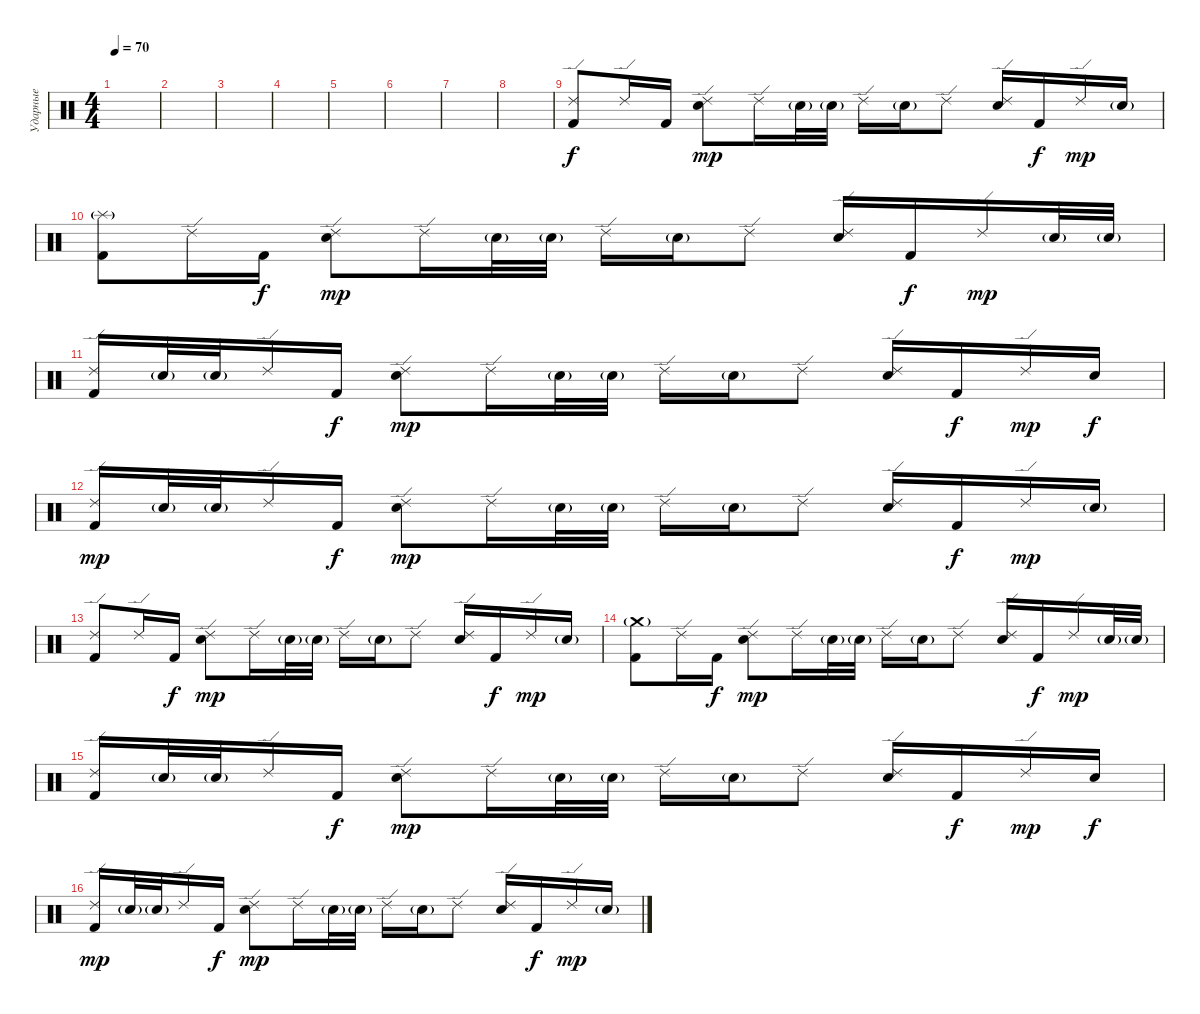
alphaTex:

\track ("Ударные" "Ударные") {instrument percussion}
\staff {score}
\articulation defaults
\ts (4 4)
\tempo 70
\clef neutral
\ks c
|
|
|
|
|
|
|
|
("Ride (edge) 2" "Kick (hit) 2").8 "Ride (edge) 2".16 "Kick (hit) 2".16{dy f} ("Ride (edge) 2" "Snare (hit) 2").8{dy mp} "Ride (edge) 2".16 "Snare (hit) 2"{g}.32 "Snare (hit) 2"{g}.32 "Ride (edge) 2".16 "Snare (hit) 2"{g}.16 "Ride (edge) 2".8 ("Ride (edge) 2" "Snare (hit) 2").16 "Kick (hit) 2".16{dy f} "Ride (edge) 2".16{dy mp} "Snare (hit) 2"{g}.16 |
("Splash (hit)"{g} "Kick (hit) 2").8 "Ride (edge) 2".16 "Kick (hit) 2".16{dy f} ("Ride (edge) 2" "Snare (hit) 2").8{dy mp} "Ride (edge) 2".16 "Snare (hit) 2"{g}.32 "Snare (hit) 2"{g}.32 "Ride (edge) 2".16 "Snare (hit) 2"{g}.16 "Ride (edge) 2".8 ("Ride (edge) 2" "Snare (hit) 2").16 "Kick (hit) 2".16{dy f} "Ride (edge) 2".16{dy mp} "Snare (hit) 2"{g}.32 "Snare (hit) 2"{g}.32 |
("Ride (edge) 2" "Kick (hit) 2").16 "Snare (hit) 2"{g}.32 "Snare (hit) 2"{g}.32 "Ride (edge) 2".16 "Kick (hit) 2".16{dy f} ("Ride (edge) 2" "Snare (hit) 2").8{dy mp} "Ride (edge) 2".16 "Snare (hit) 2"{g}.32 "Snare (hit) 2"{g}.32 "Ride (edge) 2".16 "Snare (hit) 2"{g}.16 "Ride (edge) 2".8 ("Ride (edge) 2" "Snare (hit) 2").16 "Kick (hit) 2".16{dy f} "Ride (edge) 2".16{dy mp} "Snare (hit) 2".16{dy f} |
("Ride (edge) 2" "Kick (hit) 2").16{dy mp} "Snare (hit) 2"{g}.32 "Snare (hit) 2"{g}.32 "Ride (edge) 2".16 "Kick (hit) 2".16{dy f} ("Ride (edge) 2" "Snare (hit) 2").8{dy mp} "Ride (edge) 2".16 "Snare (hit) 2"{g}.32 "Snare (hit) 2"{g}.32 "Ride (edge) 2".16 "Snare (hit) 2"{g}.16 "Ride (edge) 2".8 ("Ride (edge) 2" "Snare (hit) 2").16 "Kick (hit) 2".16{dy f} "Ride (edge) 2".16{dy mp} "Snare (hit) 2"{g}.16 |
("Ride (edge) 2" "Kick (hit) 2").8 "Ride (edge) 2".16 "Kick (hit) 2".16{dy f} ("Ride (edge) 2" "Snare (hit) 2").8{dy mp} "Ride (edge) 2".16 "Snare (hit) 2"{g}.32 "Snare (hit) 2"{g}.32 "Ride (edge) 2".16 "Snare (hit) 2"{g}.16 "Ride (edge) 2".8 ("Ride (edge) 2" "Snare (hit) 2").16 "Kick (hit) 2".16{dy f} "Ride (edge) 2".16{dy mp} "Snare (hit) 2"{g}.16 |
("Crash medium (hit)"{g} "Kick (hit) 2").8 "Ride (edge) 2".16 "Kick (hit) 2".16{dy f} ("Ride (edge) 2" "Snare (hit) 2").8{dy mp} "Ride (edge) 2".16 "Snare (hit) 2"{g}.32 "Snare (hit) 2"{g}.32 "Ride (edge) 2".16 "Snare (hit) 2"{g}.16 "Ride (edge) 2".8 ("Ride (edge) 2" "Snare (hit) 2").16 "Kick (hit) 2".16{dy f} "Ride (edge) 2".16{dy mp} "Snare (hit) 2"{g}.32 "Snare (hit) 2"{g}.32 |
("Ride (edge) 2" "Kick (hit) 2").16 "Snare (hit) 2"{g}.32 "Snare (hit) 2"{g}.32 "Ride (edge) 2".16 "Kick (hit) 2".16{dy f} ("Ride (edge) 2" "Snare (hit) 2").8{dy mp} "Ride (edge) 2".16 "Snare (hit) 2"{g}.32 "Snare (hit) 2"{g}.32 "Ride (edge) 2".16 "Snare (hit) 2"{g}.16 "Ride (edge) 2".8 ("Ride (edge) 2" "Snare (hit) 2").16 "Kick (hit) 2".16{dy f} "Ride (edge) 2".16{dy mp} "Snare (hit) 2".16{dy f} |
("Ride (edge) 2" "Kick (hit) 2").16{dy mp} "Snare (hit) 2"{g}.32 "Snare (hit) 2"{g}.32 "Ride (edge) 2".16 "Kick (hit) 2".16{dy f} ("Ride (edge) 2" "Snare (hit) 2").8{dy mp} "Ride (edge) 2".16 "Snare (hit) 2"{g}.32 "Snare (hit) 2"{g}.32 "Ride (edge) 2".16 "Snare (hit) 2"{g}.16 "Ride (edge) 2".8 ("Ride (edge) 2" "Snare (hit) 2").16 "Kick (hit) 2".16{dy f} "Ride (edge) 2".16{dy mp} "Snare (hit) 2"{g}.16
